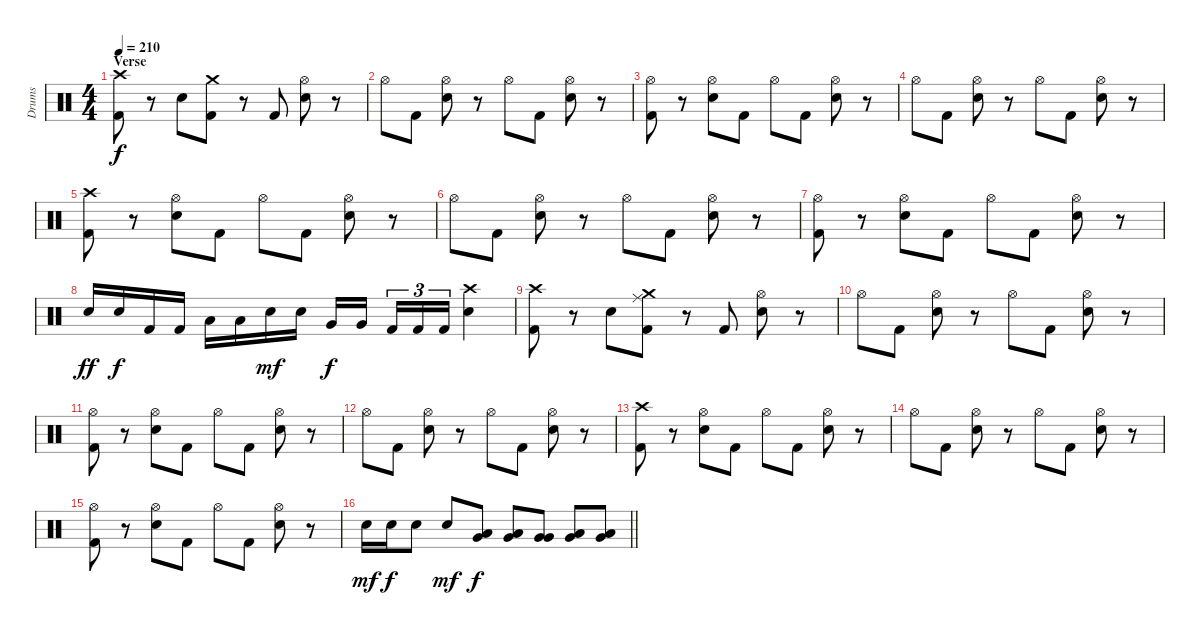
\track ("Drums" "Drums") {instrument percussion}
\staff {score}
\articulation defaults
\ts (4 4)
\section ("" "Verse")
\tempo 210
\clef neutral
\ks c
("Crash high (hit)" "Kick (hit) 2").8{dy f} r.8 "Electric Snare (hit)".8 ("Crash medium (hit)" "Kick (hit) 2").8 r.8 "Kick (hit) 2".8 ("Hi-Hat (open)" "Electric Snare (hit)").8 r.8 |
"Hi-Hat (open)".8 "Kick (hit) 2".8 ("Hi-Hat (open)" "Electric Snare (hit)").8 r.8 "Hi-Hat (open)".8 "Kick (hit) 2".8 ("Hi-Hat (open)" "Electric Snare (hit)").8 r.8 |
("Hi-Hat (open)" "Kick (hit) 2").8 r.8 ("Hi-Hat (open)" "Electric Snare (hit)").8 "Kick (hit) 2".8 "Hi-Hat (open)".8 "Kick (hit) 2".8 ("Hi-Hat (open)" "Electric Snare (hit)").8 r.8 |
"Hi-Hat (open)".8 "Kick (hit) 2".8 ("Hi-Hat (open)" "Electric Snare (hit)").8 r.8 "Hi-Hat (open)".8 "Kick (hit) 2".8 ("Hi-Hat (open)" "Electric Snare (hit)").8 r.8 |
("Crash high (hit)" "Kick (hit) 2").8 r.8 ("Hi-Hat (open)" "Electric Snare (hit)").8 "Kick (hit) 2".8 "Hi-Hat (open)".8 "Kick (hit) 2".8 ("Hi-Hat (open)" "Electric Snare (hit)").8 r.8 |
"Hi-Hat (open)".8 "Kick (hit) 2".8 ("Hi-Hat (open)" "Electric Snare (hit)").8 r.8 "Hi-Hat (open)".8 "Kick (hit) 2".8 ("Hi-Hat (open)" "Electric Snare (hit)").8 r.8 |
("Hi-Hat (open)" "Kick (hit) 2").8 r.8 ("Hi-Hat (open)" "Electric Snare (hit)").8 "Kick (hit) 2".8 "Hi-Hat (open)".8 "Kick (hit) 2".8 ("Hi-Hat (open)" "Electric Snare (hit)").8 r.8 |
"Electric Snare (hit)".16{dy ff} "Electric Snare (hit)".16{dy f} "Kick (hit) 2".16 "Kick (hit) 2".16 "Low Tom (hit)".16 "Low Tom (hit)".16 "Electric Snare (hit)".16{dy mf} "Electric Snare (hit)".16 "Very Low Tom (hit)".16{dy f} "Very Low Tom (hit)".16{beam splitsecondary} "Kick (hit) 2".16{tu (3 2)} "Kick (hit) 2".16{tu (3 2)} "Kick (hit) 2".16{tu (3 2)} ("Crash high (hit)" "Electric Snare (hit)").4 |
("Crash high (hit)" "Kick (hit) 2").8 r.8 "Electric Snare (hit)".8 ("Ride (middle)" "Crash medium (hit)" "Kick (hit) 2").8 r.8 "Kick (hit) 2".8 ("Hi-Hat (open)" "Electric Snare (hit)").8 r.8 |
"Hi-Hat (open)".8 "Kick (hit) 2".8 ("Hi-Hat (open)" "Electric Snare (hit)").8 r.8 "Hi-Hat (open)".8 "Kick (hit) 2".8 ("Hi-Hat (open)" "Electric Snare (hit)").8 r.8 |
("Hi-Hat (open)" "Kick (hit) 2").8 r.8 ("Hi-Hat (open)" "Electric Snare (hit)").8 "Kick (hit) 2".8 "Hi-Hat (open)".8 "Kick (hit) 2".8 ("Hi-Hat (open)" "Electric Snare (hit)").8 r.8 |
"Hi-Hat (open)".8 "Kick (hit) 2".8 ("Hi-Hat (open)" "Electric Snare (hit)").8 r.8 "Hi-Hat (open)".8 "Kick (hit) 2".8 ("Hi-Hat (open)" "Electric Snare (hit)").8 r.8 |
("Crash high (hit)" "Kick (hit) 2").8 r.8 ("Hi-Hat (open)" "Electric Snare (hit)").8 "Kick (hit) 2".8 "Hi-Hat (open)".8 "Kick (hit) 2".8 ("Hi-Hat (open)" "Electric Snare (hit)").8 r.8 |
"Hi-Hat (open)".8 "Kick (hit) 2".8 ("Hi-Hat (open)" "Electric Snare (hit)").8 r.8 "Hi-Hat (open)".8 "Kick (hit) 2".8 ("Hi-Hat (open)" "Electric Snare (hit)").8 r.8 |
("Hi-Hat (open)" "Kick (hit) 2").8 r.8 ("Hi-Hat (open)" "Electric Snare (hit)").8 "Kick (hit) 2".8 "Hi-Hat (open)".8 "Kick (hit) 2".8 ("Hi-Hat (open)" "Electric Snare (hit)").8 r.8 |
\barLineRight lightlight "Electric Snare (hit)".16{dy mf} "Electric Snare (hit)".16{dy f} "Electric Snare (hit)".8 "Electric Snare (hit)".8{dy mf}
("Low Tom (hit)" "Very Low Tom (hit)").8{dy f} ("Low Tom (hit)" "Very Low Tom (hit)").8 ("Very Low Tom (hit)" "Very Low Tom (hit)").8 ("Low Floor Tom (hit)" "Very Low Tom (hit)").8 ("Low Floor Tom (hit)" "Very Low Tom (hit)").8
